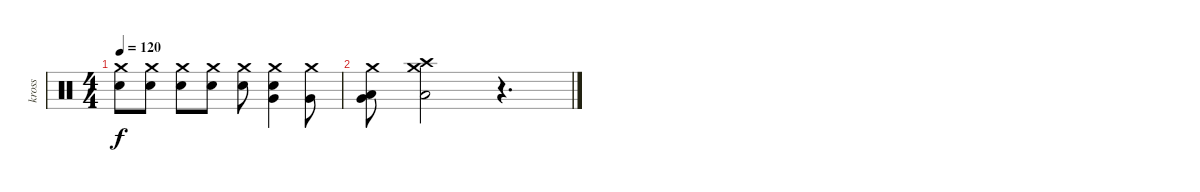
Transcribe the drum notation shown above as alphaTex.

\track ("kross" "kross") {instrument percussion}
\staff {score}
\articulation defaults
\ts (4 4)
\tempo 120
\clef neutral
\ks c
("Crash medium (hit)" "Electric Snare (hit)").8{dy f} ("Crash medium (hit)" "Electric Snare (hit)").8 ("Crash medium (hit)" "Electric Snare (hit)").8 ("Crash medium (hit)" "Electric Snare (hit)").8 ("Crash medium (hit)" "Electric Snare (hit)").8 ("Crash medium (hit)" "Very Low Tom (hit)" "Electric Snare (hit)").4 ("Crash medium (hit)" "Very Low Tom (hit)").8 |
("Crash medium (hit)" "Very Low Tom (hit)" "Low Floor Tom (hit)").8 ("Crash high (hit)" "Crash medium (hit)" "Low Floor Tom (hit)").2 r.4{d}
